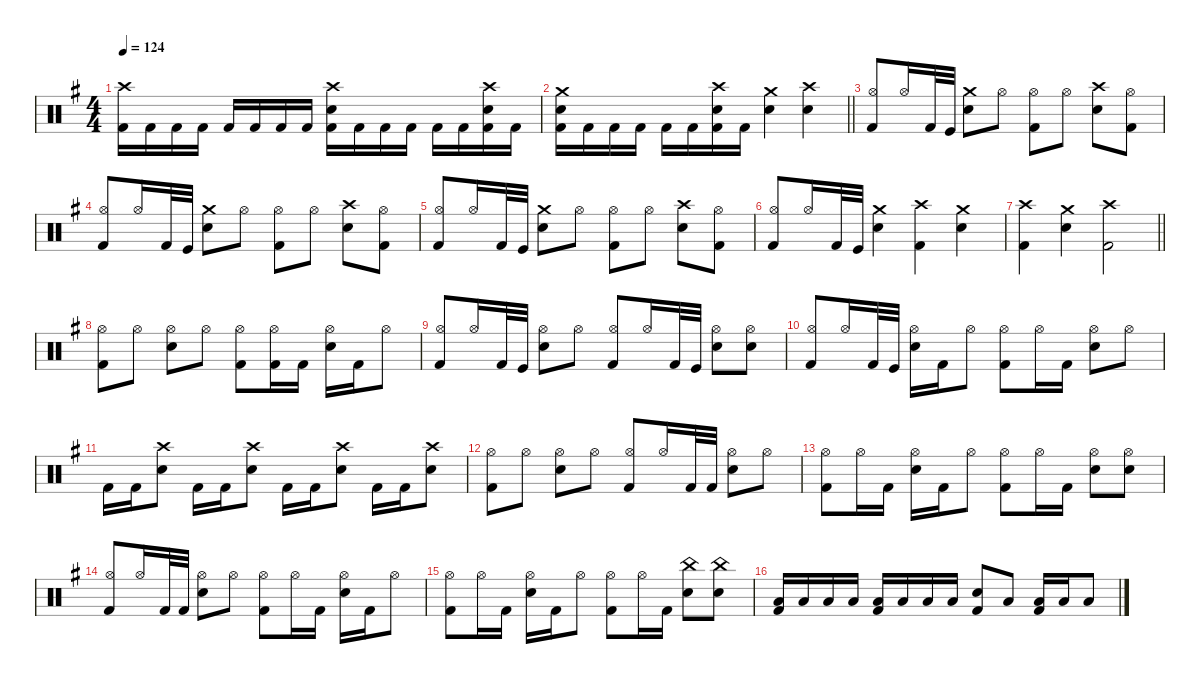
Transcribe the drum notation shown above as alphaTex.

\defaultSystemsLayout 4
\hideDynamics
\bracketExtendMode nobrackets
\singleTrackTrackNamePolicy hidden
\multiTrackTrackNamePolicy hidden
\otherSystemsTrackNameOrientation horizontal
\track ("Drums" "drm.") {defaultSystemsLayout 4 instrument percussion}
\staff {score}
\articulation defaults
\ts (4 4)
\tempo 124
\clef neutral
\ks eminor
("Crash high (hit)"{acc forcenatural} "Kick (hit) 2"{acc forcenatural}).16{dy f beam Down} "Kick (hit) 2"{acc forcenatural}.16{dy mf beam Down} "Kick (hit) 2"{acc forcenatural}.16{dy ff beam Down} "Kick (hit) 2"{acc forcenatural}.16{beam Down} "Kick (hit) 2"{acc forcenatural}.16{beam Up} "Kick (hit) 2"{acc forcenatural}.16{beam Up} "Kick (hit) 2"{acc forcenatural}.16{beam Up} "Kick (hit) 2"{acc forcenatural}.16{beam Up} ("Crash high (hit)"{acc forcenatural} "Snare (hit) 2"{acc forcenatural} "Kick (hit) 2"{acc forcenatural}).16{dy mp beam Down} "Kick (hit) 2"{acc forcenatural}.16{dy ff beam Down} "Kick (hit) 2"{acc forcenatural}.16{beam Down} "Kick (hit) 2"{acc forcenatural}.16{beam Down} "Kick (hit) 2"{acc forcenatural}.16{beam Down} "Kick (hit) 2"{acc forcenatural}.16{beam Down} ("Crash high (hit)"{acc forcenatural} "Snare (hit) 2"{acc forcenatural} "Kick (hit) 2"{acc forcenatural}).16{dy mp beam Down} "Kick (hit) 2"{acc forcenatural}.16{dy ff beam Down} |
\barLineRight lightlight
("Crash medium (hit)"{acc forcenatural} "Snare (hit) 2"{acc forcenatural} "Kick (hit) 2"{acc forcenatural}).16{dy mp beam Down} "Kick (hit) 2"{acc forcenatural}.16{dy ff beam Down} "Kick (hit) 2"{acc forcenatural}.16{beam Down} "Kick (hit) 2"{acc forcenatural}.16{beam Down} "Kick (hit) 2"{acc forcenatural}.16{beam Down} "Kick (hit) 2"{acc forcenatural}.16{beam Down} ("Crash high (hit)"{acc forcenatural} "Snare (hit) 2"{acc forcenatural} "Kick (hit) 2"{acc forcenatural}).16{dy mp beam Down} "Kick (hit) 2"{acc forcenatural}.16{dy ff beam Down} ("Crash medium (hit)"{acc forcenatural} "Snare (hit) 2"{acc forcenatural}).4{dy mf beam Down} ("Crash high (hit)"{acc forcenatural} "Snare (hit) 2"{acc forcenatural}).4{dy f beam Down} |
("Hi-Hat (open)"{acc forcenatural} "Kick (hit) 2"{acc forcenatural}).8{dy mp beam Up} "Hi-Hat (open)"{acc forcenatural}.16{beam Up} "Kick (hit) 2"{acc forcenatural}.32{dy ff beam Up} "Kick (hit)"{acc forcenatural}.32{beam Up} ("Crash medium (hit)"{acc forcenatural} "Snare (hit) 2"{acc forcenatural}).8{dy mf beam Down} "Hi-Hat (open)"{acc forcenatural}.8{beam Down} ("Hi-Hat (open)"{acc forcenatural} "Kick (hit) 2"{acc forcenatural}).8{beam Down} "Hi-Hat (open)"{acc forcenatural}.8{beam Down} ("Crash high (hit)"{acc forcenatural} "Snare (hit) 2"{acc forcenatural}).8{beam Down} ("Hi-Hat (open)"{acc forcenatural} "Kick (hit) 2"{acc forcenatural}).8{beam Down} |
("Hi-Hat (open)"{acc forcenatural} "Kick (hit) 2"{acc forcenatural}).8{beam Up} "Hi-Hat (open)"{acc forcenatural}.16{beam Up} "Kick (hit) 2"{acc forcenatural}.32{dy ff beam Up} "Kick (hit)"{acc forcenatural}.32{beam Up} ("Crash medium (hit)"{acc forcenatural} "Snare (hit) 2"{acc forcenatural}).8{dy mf beam Down} "Hi-Hat (open)"{acc forcenatural}.8{beam Down} ("Hi-Hat (open)"{acc forcenatural} "Kick (hit) 2"{acc forcenatural}).8{beam Down} "Hi-Hat (open)"{acc forcenatural}.8{beam Down} ("Crash high (hit)"{acc forcenatural} "Snare (hit) 2"{acc forcenatural}).8{beam Down} ("Hi-Hat (open)"{acc forcenatural} "Kick (hit) 2"{acc forcenatural}).8{beam Down} |
("Hi-Hat (open)"{acc forcenatural} "Kick (hit) 2"{acc forcenatural}).8{beam Up} "Hi-Hat (open)"{acc forcenatural}.16{beam Up} "Kick (hit) 2"{acc forcenatural}.32{dy ff beam Up} "Kick (hit)"{acc forcenatural}.32{beam Up} ("Crash medium (hit)"{acc forcenatural} "Snare (hit) 2"{acc forcenatural}).8{dy mf beam Down} "Hi-Hat (open)"{acc forcenatural}.8{beam Down} ("Hi-Hat (open)"{acc forcenatural} "Kick (hit) 2"{acc forcenatural}).8{beam Down} "Hi-Hat (open)"{acc forcenatural}.8{beam Down} ("Crash high (hit)"{acc forcenatural} "Snare (hit) 2"{acc forcenatural}).8{beam Down} ("Hi-Hat (open)"{acc forcenatural} "Kick (hit) 2"{acc forcenatural}).8{beam Down} |
("Hi-Hat (open)"{acc forcenatural} "Kick (hit) 2"{acc forcenatural}).8{beam Up} "Hi-Hat (open)"{acc forcenatural}.16{beam Up} "Kick (hit) 2"{acc forcenatural}.32{dy ff beam Up} "Kick (hit)"{acc forcenatural}.32{beam Up} ("Crash medium (hit)"{acc forcenatural} "Snare (hit) 2"{acc forcenatural}).4{dy mf beam Down} ("Crash high (hit)"{acc forcenatural} "Kick (hit) 2"{acc forcenatural}).4{beam Down} ("Crash medium (hit)"{acc forcenatural} "Snare (hit) 2"{acc forcenatural}).4{beam Down} |
\barLineRight lightlight
("Crash high (hit)"{acc forcenatural} "Kick (hit) 2"{acc forcenatural}).4{beam Down} ("Crash medium (hit)"{acc forcenatural} "Snare (hit) 2"{acc forcenatural}).4{beam Down} ("Crash high (hit)"{acc forcenatural} "Kick (hit) 2"{acc forcenatural}).2{beam Down} |
("Hi-Hat (open)"{acc forcenatural} "Kick (hit) 2"{acc forcenatural}).8{beam Down} "Hi-Hat (open)"{acc forcenatural}.8{beam Down} ("Hi-Hat (open)"{acc forcenatural} "Snare (hit) 2"{acc forcenatural}).8{beam Down} "Hi-Hat (open)"{acc forcenatural}.8{beam Down} ("Hi-Hat (open)"{acc forcenatural} "Kick (hit) 2"{acc forcenatural}).8{beam Down} ("Hi-Hat (open)"{acc forcenatural} "Kick (hit) 2"{acc forcenatural}).16{beam Down} "Kick (hit) 2"{acc forcenatural}.16{dy ff beam Down} ("Hi-Hat (open)"{acc forcenatural} "Snare (hit) 2"{acc forcenatural}).16{dy mf beam Down} "Kick (hit) 2"{acc forcenatural}.16{dy ff beam Down} "Hi-Hat (open)"{acc forcenatural}.8{dy mf beam Down} |
("Hi-Hat (open)"{acc forcenatural} "Kick (hit) 2"{acc forcenatural}).8{beam Up} "Hi-Hat (open)"{acc forcenatural}.16{beam Up} "Kick (hit) 2"{acc forcenatural}.32{dy ff beam Up} "Kick (hit)"{acc forcenatural}.32{beam Up} ("Hi-Hat (open)"{acc forcenatural} "Snare (hit) 2"{acc forcenatural}).8{dy mf beam Down} "Hi-Hat (open)"{acc forcenatural}.8{beam Down} ("Hi-Hat (open)"{acc forcenatural} "Kick (hit) 2"{acc forcenatural}).8{beam Up} "Hi-Hat (open)"{acc forcenatural}.16{beam Up} "Kick (hit) 2"{acc forcenatural}.32{dy ff beam Up} "Kick (hit)"{acc forcenatural}.32{beam Up} ("Hi-Hat (open)"{acc forcenatural} "Snare (hit) 2"{acc forcenatural}).8{dy mf beam Down} ("Hi-Hat (open)"{acc forcenatural} "Snare (hit) 2"{acc forcenatural}).8{beam Down} |
("Hi-Hat (open)"{acc forcenatural} "Kick (hit) 2"{acc forcenatural}).8{beam Up} "Hi-Hat (open)"{acc forcenatural}.16{beam Up} "Kick (hit) 2"{acc forcenatural}.32{dy ff beam Up} "Kick (hit)"{acc forcenatural}.32{beam Up} ("Hi-Hat (open)"{acc forcenatural} "Snare (hit) 2"{acc forcenatural}).16{dy mf beam Down} "Kick (hit) 2"{acc forcenatural}.16{dy ff beam Down} "Hi-Hat (open)"{acc forcenatural}.8{dy mf beam Down} ("Hi-Hat (open)"{acc forcenatural} "Kick (hit) 2"{acc forcenatural}).8{beam Down} "Hi-Hat (open)"{acc forcenatural}.16{beam Down} "Kick (hit) 2"{acc forcenatural}.16{dy ff beam Down} ("Hi-Hat (open)"{acc forcenatural} "Snare (hit) 2"{acc forcenatural}).8{dy mf beam Down} "Hi-Hat (open)"{acc forcenatural}.8{beam Down} |
"Kick (hit) 2"{acc forcenatural}.16{dy ff beam Down} "Kick (hit) 2"{acc forcenatural}.16{beam Down} ("Crash high (hit)"{acc forcenatural} "Snare (hit) 2"{acc forcenatural}).8{dy mf beam Down} "Kick (hit) 2"{acc forcenatural}.16{dy ff beam Down} "Kick (hit) 2"{acc forcenatural}.16{beam Down} ("Crash high (hit)"{acc forcenatural} "Snare (hit) 2"{acc forcenatural}).8{dy mf beam Down} "Kick (hit) 2"{acc forcenatural}.16{dy ff beam Down} "Kick (hit) 2"{acc forcenatural}.16{beam Down} ("Crash high (hit)"{acc forcenatural} "Snare (hit) 2"{acc forcenatural}).8{dy mf beam Down} "Kick (hit) 2"{acc forcenatural}.16{dy ff beam Down} "Kick (hit) 2"{acc forcenatural}.16{beam Down} ("Crash high (hit)"{acc forcenatural} "Snare (hit) 2"{acc forcenatural}).8{dy mf beam Down} |
("Hi-Hat (open)"{acc forcenatural} "Kick (hit) 2"{acc forcenatural}).8{beam Down} "Hi-Hat (open)"{acc forcenatural}.8{beam Down} ("Hi-Hat (open)"{acc forcenatural} "Snare (hit) 2"{acc forcenatural}).8{beam Down} "Hi-Hat (open)"{acc forcenatural}.8{beam Down} ("Hi-Hat (open)"{acc forcenatural} "Kick (hit) 2"{acc forcenatural}).8{beam Up} "Hi-Hat (open)"{acc forcenatural}.16{beam Up} "Kick (hit) 2"{acc forcenatural}.32{dy ff beam Up} "Kick (hit) 2"{acc forcenatural}.32{beam Up} ("Hi-Hat (open)"{acc forcenatural} "Snare (hit) 2"{acc forcenatural}).8{dy mf beam Down} "Hi-Hat (open)"{acc forcenatural}.8{beam Down} |
("Hi-Hat (open)"{acc forcenatural} "Kick (hit) 2"{acc forcenatural}).8{beam Down} "Hi-Hat (open)"{acc forcenatural}.16{beam Down} "Kick (hit) 2"{acc forcenatural}.16{dy ff beam Down} ("Hi-Hat (open)"{acc forcenatural} "Snare (hit) 2"{acc forcenatural}).16{dy mf beam Down} "Kick (hit) 2"{acc forcenatural}.16{dy ff beam Down} "Hi-Hat (open)"{acc forcenatural}.8{dy mf beam Down} ("Hi-Hat (open)"{acc forcenatural} "Kick (hit) 2"{acc forcenatural}).8{beam Down} "Hi-Hat (open)"{acc forcenatural}.16{beam Down} "Kick (hit) 2"{acc forcenatural}.16{dy ff beam Down} ("Hi-Hat (open)"{acc forcenatural} "Snare (hit) 2"{acc forcenatural}).8{dy mf beam Down} ("Hi-Hat (open)"{acc forcenatural} "Snare (hit) 2"{acc forcenatural}).8{beam Down} |
("Hi-Hat (open)"{acc forcenatural} "Kick (hit) 2"{acc forcenatural}).8{beam Up} "Hi-Hat (open)"{acc forcenatural}.16{beam Up} "Kick (hit) 2"{acc forcenatural}.32{dy ff beam Up} "Kick (hit) 2"{acc forcenatural}.32{beam Up} ("Hi-Hat (open)"{acc forcenatural} "Snare (hit) 2"{acc forcenatural}).8{dy mf beam Down} "Hi-Hat (open)"{acc forcenatural}.8{beam Down} ("Hi-Hat (open)"{acc forcenatural} "Kick (hit) 2"{acc forcenatural}).8{beam Down} "Hi-Hat (open)"{acc forcenatural}.16{beam Down} "Kick (hit) 2"{acc forcenatural}.16{dy ff beam Down} ("Hi-Hat (open)"{acc forcenatural} "Snare (hit) 2"{acc forcenatural}).16{dy mf beam Down} "Kick (hit) 2"{acc forcenatural}.16{dy ff beam Down} "Hi-Hat (open)"{acc forcenatural}.8{dy mf beam Down} |
("Hi-Hat (open)"{acc forcenatural} "Kick (hit) 2"{acc forcenatural}).8{beam Down} "Hi-Hat (open)"{acc forcenatural}.16{beam Down} "Kick (hit) 2"{acc forcenatural}.16{dy ff beam Down} ("Hi-Hat (open)"{acc forcenatural} "Snare (hit) 2"{acc forcenatural}).16{dy mf beam Down} "Kick (hit) 2"{acc forcenatural}.16{dy ff beam Down} "Hi-Hat (open)"{acc forcenatural}.8{dy mf beam Down} ("Hi-Hat (open)"{acc forcenatural} "Kick (hit) 2"{acc forcenatural}).8{beam Down} "Hi-Hat (open)"{acc forcenatural}.16{beam Down} "Kick (hit) 2"{acc forcenatural}.16{dy ff beam Down} ("China (hit)"{acc forcenatural} "Snare (hit) 2"{acc forcenatural}).8{dy mf beam Down} ("China (hit)"{acc forcenatural} "Snare (hit) 2"{acc forcenatural}).8{beam Down} |
("Low Floor Tom (hit)"{acc forcenatural} "Kick (hit) 2"{acc forcenatural}).16{beam Up} "Low Floor Tom (hit)"{acc forcenatural}.16{dy mp beam Up} "Low Floor Tom (hit)"{acc forcenatural}.16{dy mf beam Up} "Low Floor Tom (hit)"{acc forcenatural}.16{dy mp beam Up} ("Low Floor Tom (hit)"{acc forcenatural} "Kick (hit) 2"{acc forcenatural}).16{dy mf beam Up} "Low Floor Tom (hit)"{acc forcenatural}.16{dy mp beam Up} "Low Floor Tom (hit)"{acc forcenatural}.16{dy mf beam Up} "Low Floor Tom (hit)"{acc forcenatural}.16{dy p beam Up} ("Snare (hit) 2"{acc forcenatural} "Kick (hit) 2"{acc forcenatural}).8{dy ff beam Up} "Low Floor Tom (hit)"{acc forcenatural}.8{dy mf beam Up} ("Low Floor Tom (hit)"{acc forcenatural} "Kick (hit) 2"{acc forcenatural}).16{beam Up} "Low Floor Tom (hit)"{acc forcenatural}.16{dy mp beam Up} "Low Floor Tom (hit)"{acc forcenatural}.8{dy mf beam Up}
